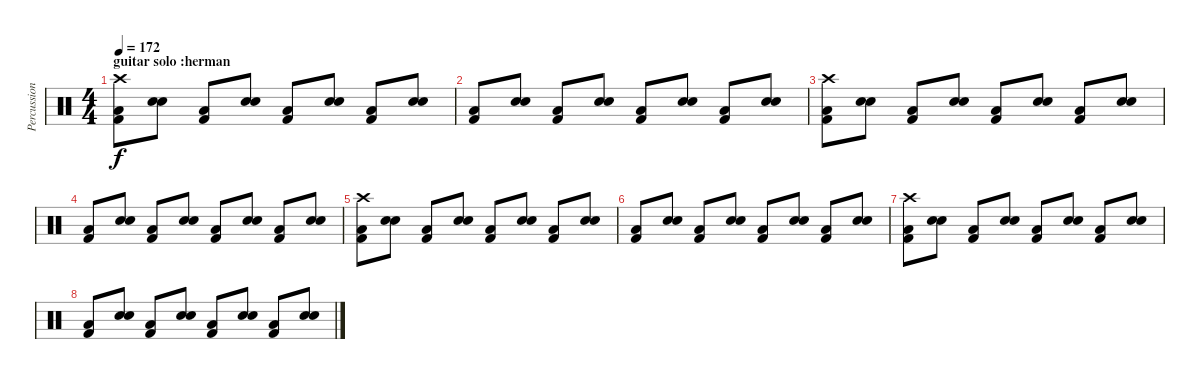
\track ("Percussion, dave" "Percussion") {instrument percussion}
\staff {score}
\articulation defaults
\ts (4 4)
\section ("" "guitar solo :herman")
\tempo 172
\clef neutral
\ks c
("Crash high (hit)" "Low Tom (hit)" "Kick (hit) 2").8{dy f} ("Snare (hit) 2" "Electric Snare (hit)").8 ("Low Tom (hit)" "Kick (hit) 2").8 ("Snare (hit) 2" "Electric Snare (hit)").8 ("Low Tom (hit)" "Kick (hit) 2").8 ("Snare (hit) 2" "Electric Snare (hit)").8 ("Low Tom (hit)" "Kick (hit) 2").8 ("Snare (hit) 2" "Electric Snare (hit)").8 |
("Low Tom (hit)" "Kick (hit) 2").8 ("Snare (hit) 2" "Electric Snare (hit)").8 ("Low Tom (hit)" "Kick (hit) 2").8 ("Snare (hit) 2" "Electric Snare (hit)").8 ("Low Tom (hit)" "Kick (hit) 2").8 ("Snare (hit) 2" "Electric Snare (hit)").8 ("Low Tom (hit)" "Kick (hit) 2").8 ("Snare (hit) 2" "Electric Snare (hit)").8 |
("Crash high (hit)" "Low Tom (hit)" "Kick (hit) 2").8 ("Snare (hit) 2" "Electric Snare (hit)").8 ("Low Tom (hit)" "Kick (hit) 2").8 ("Snare (hit) 2" "Electric Snare (hit)").8 ("Low Tom (hit)" "Kick (hit) 2").8 ("Snare (hit) 2" "Electric Snare (hit)").8 ("Low Tom (hit)" "Kick (hit) 2").8 ("Snare (hit) 2" "Electric Snare (hit)").8 |
("Low Tom (hit)" "Kick (hit) 2").8 ("Snare (hit) 2" "Electric Snare (hit)").8 ("Low Tom (hit)" "Kick (hit) 2").8 ("Snare (hit) 2" "Electric Snare (hit)").8 ("Low Tom (hit)" "Kick (hit) 2").8 ("Snare (hit) 2" "Electric Snare (hit)").8 ("Low Tom (hit)" "Kick (hit) 2").8 ("Snare (hit) 2" "Electric Snare (hit)").8 |
("Crash high (hit)" "Low Tom (hit)" "Kick (hit) 2").8 ("Snare (hit) 2" "Electric Snare (hit)").8 ("Low Tom (hit)" "Kick (hit) 2").8 ("Snare (hit) 2" "Electric Snare (hit)").8 ("Low Tom (hit)" "Kick (hit) 2").8 ("Snare (hit) 2" "Electric Snare (hit)").8 ("Low Tom (hit)" "Kick (hit) 2").8 ("Snare (hit) 2" "Electric Snare (hit)").8 |
("Low Tom (hit)" "Kick (hit) 2").8 ("Snare (hit) 2" "Electric Snare (hit)").8 ("Low Tom (hit)" "Kick (hit) 2").8 ("Snare (hit) 2" "Electric Snare (hit)").8 ("Low Tom (hit)" "Kick (hit) 2").8 ("Snare (hit) 2" "Electric Snare (hit)").8 ("Low Tom (hit)" "Kick (hit) 2").8 ("Snare (hit) 2" "Electric Snare (hit)").8 |
("Crash high (hit)" "Low Tom (hit)" "Kick (hit) 2").8 ("Snare (hit) 2" "Electric Snare (hit)").8 ("Low Tom (hit)" "Kick (hit) 2").8 ("Snare (hit) 2" "Electric Snare (hit)").8 ("Low Tom (hit)" "Kick (hit) 2").8 ("Snare (hit) 2" "Electric Snare (hit)").8 ("Low Tom (hit)" "Kick (hit) 2").8 ("Snare (hit) 2" "Electric Snare (hit)").8 |
("Low Tom (hit)" "Kick (hit) 2").8 ("Snare (hit) 2" "Electric Snare (hit)").8 ("Low Tom (hit)" "Kick (hit) 2").8 ("Snare (hit) 2" "Electric Snare (hit)").8 ("Low Tom (hit)" "Kick (hit) 2").8 ("Snare (hit) 2" "Electric Snare (hit)").8 ("Low Tom (hit)" "Kick (hit) 2").8 ("Snare (hit) 2" "Electric Snare (hit)").8
